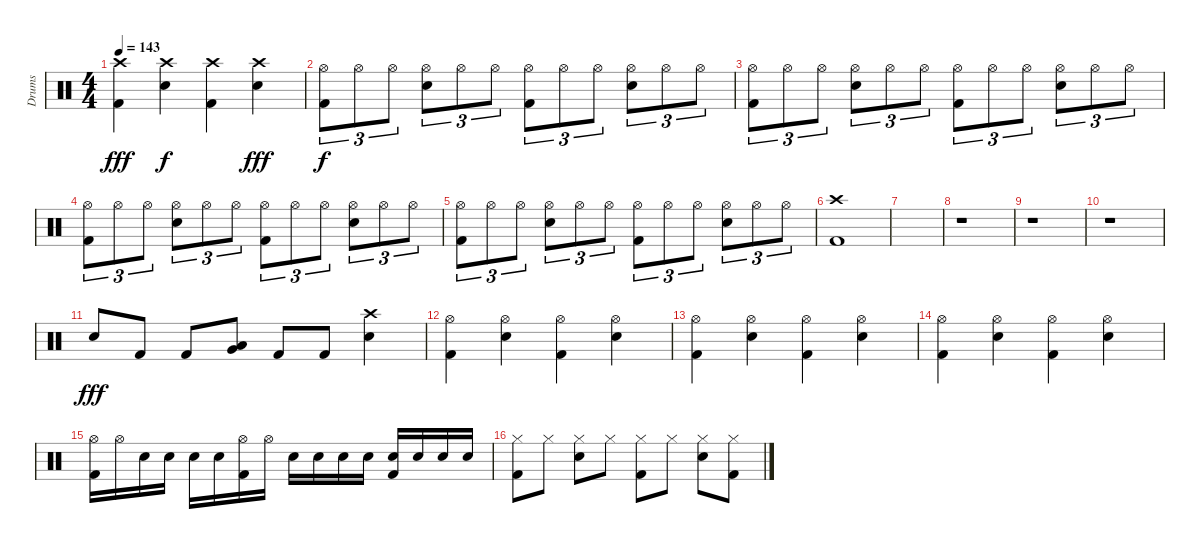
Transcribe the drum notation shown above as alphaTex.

\track ("Drums" "Drums") {instrument percussion}
\staff {score}
\articulation defaults
\ts (4 4)
\tempo 143
\clef neutral
\ks c
("Kick (hit) 2" "Crash high (hit)").4{dy fff} ("Snare (hit) 2" "Crash high (hit)").4{dy f} ("Kick (hit) 2" "Crash high (hit)").4 ("Snare (hit) 2" "Crash high (hit)").4{dy fff} |
("Kick (hit) 2" "Hi-Hat (open)").8{tu (3 2) dy f} "Hi-Hat (open)".8{tu (3 2)} "Hi-Hat (open)".8{tu (3 2)} ("Snare (hit) 2" "Hi-Hat (open)").8{tu (3 2)} "Hi-Hat (open)".8{tu (3 2)} "Hi-Hat (open)".8{tu (3 2)} ("Kick (hit) 2" "Hi-Hat (open)").8{tu (3 2)} "Hi-Hat (open)".8{tu (3 2)} "Hi-Hat (open)".8{tu (3 2)} ("Snare (hit) 2" "Hi-Hat (open)").8{tu (3 2)} "Hi-Hat (open)".8{tu (3 2)} "Hi-Hat (open)".8{tu (3 2)} |
("Kick (hit) 2" "Hi-Hat (open)").8{tu (3 2)} "Hi-Hat (open)".8{tu (3 2)} "Hi-Hat (open)".8{tu (3 2)} ("Snare (hit) 2" "Hi-Hat (open)").8{tu (3 2)} "Hi-Hat (open)".8{tu (3 2)} "Hi-Hat (open)".8{tu (3 2)} ("Kick (hit) 2" "Hi-Hat (open)").8{tu (3 2)} "Hi-Hat (open)".8{tu (3 2)} "Hi-Hat (open)".8{tu (3 2)} ("Snare (hit) 2" "Hi-Hat (open)").8{tu (3 2)} "Hi-Hat (open)".8{tu (3 2)} "Hi-Hat (open)".8{tu (3 2)} |
("Kick (hit) 2" "Hi-Hat (open)").8{tu (3 2)} "Hi-Hat (open)".8{tu (3 2)} "Hi-Hat (open)".8{tu (3 2)} ("Snare (hit) 2" "Hi-Hat (open)").8{tu (3 2)} "Hi-Hat (open)".8{tu (3 2)} "Hi-Hat (open)".8{tu (3 2)} ("Kick (hit) 2" "Hi-Hat (open)").8{tu (3 2)} "Hi-Hat (open)".8{tu (3 2)} "Hi-Hat (open)".8{tu (3 2)} ("Snare (hit) 2" "Hi-Hat (open)").8{tu (3 2)} "Hi-Hat (open)".8{tu (3 2)} "Hi-Hat (open)".8{tu (3 2)} |
("Kick (hit) 2" "Hi-Hat (open)").8{tu (3 2)} "Hi-Hat (open)".8{tu (3 2)} "Hi-Hat (open)".8{tu (3 2)} ("Snare (hit) 2" "Hi-Hat (open)").8{tu (3 2)} "Hi-Hat (open)".8{tu (3 2)} "Hi-Hat (open)".8{tu (3 2)} ("Kick (hit) 2" "Hi-Hat (open)").8{tu (3 2)} "Hi-Hat (open)".8{tu (3 2)} "Hi-Hat (open)".8{tu (3 2)} ("Snare (hit) 2" "Hi-Hat (open)").8{tu (3 2)} "Hi-Hat (open)".8{tu (3 2)} "Hi-Hat (open)".8{tu (3 2)} |
("Kick (hit) 2" "Crash high (hit)").1 |
|
r.1 |
r.1 |
r.1 |
"Snare (hit) 2".8{dy fff} "Kick (hit) 2".8 "Kick (hit) 2".8 ("Very Low Tom (hit)" "Low Tom (hit)").8 "Kick (hit) 2".8 "Kick (hit) 2".8 ("Crash high (hit)" "Snare (hit) 2").4 |
("Kick (hit) 2" "Hi-Hat (open)").4 ("Snare (hit) 2" "Hi-Hat (open)").4 ("Kick (hit) 2" "Hi-Hat (open)").4 ("Snare (hit) 2" "Hi-Hat (open)").4 |
("Kick (hit) 2" "Hi-Hat (open)").4 ("Snare (hit) 2" "Hi-Hat (open)").4 ("Kick (hit) 2" "Hi-Hat (open)").4 ("Snare (hit) 2" "Hi-Hat (open)").4 |
("Kick (hit) 2" "Hi-Hat (open)").4 ("Snare (hit) 2" "Hi-Hat (open)").4 ("Kick (hit) 2" "Hi-Hat (open)").4 ("Snare (hit) 2" "Hi-Hat (open)").4 |
("Kick (hit) 2" "Hi-Hat (open)").16 "Hi-Hat (open)".16 "Snare (hit) 2".16 "Snare (hit) 2".16 "Snare (hit) 2".16 "Snare (hit) 2".16 ("Kick (hit) 2" "Hi-Hat (open)").16 "Hi-Hat (open)".16 "Snare (hit) 2".16 "Snare (hit) 2".16 "Snare (hit) 2".16 "Snare (hit) 2".16 ("Kick (hit) 2" "Snare (hit) 2").16 "Snare (hit) 2".16 "Snare (hit) 2".16 "Snare (hit) 2".16 |
("Kick (hit) 2" "Hi-Hat (closed)").8 "Hi-Hat (closed)".8 ("Snare (hit) 2" "Hi-Hat (closed)").8 "Hi-Hat (closed)".8 ("Kick (hit) 2" "Hi-Hat (closed)").8 "Hi-Hat (closed)".8 ("Snare (hit) 2" "Hi-Hat (closed)").8 ("Kick (hit) 2" "Hi-Hat (closed)").8
